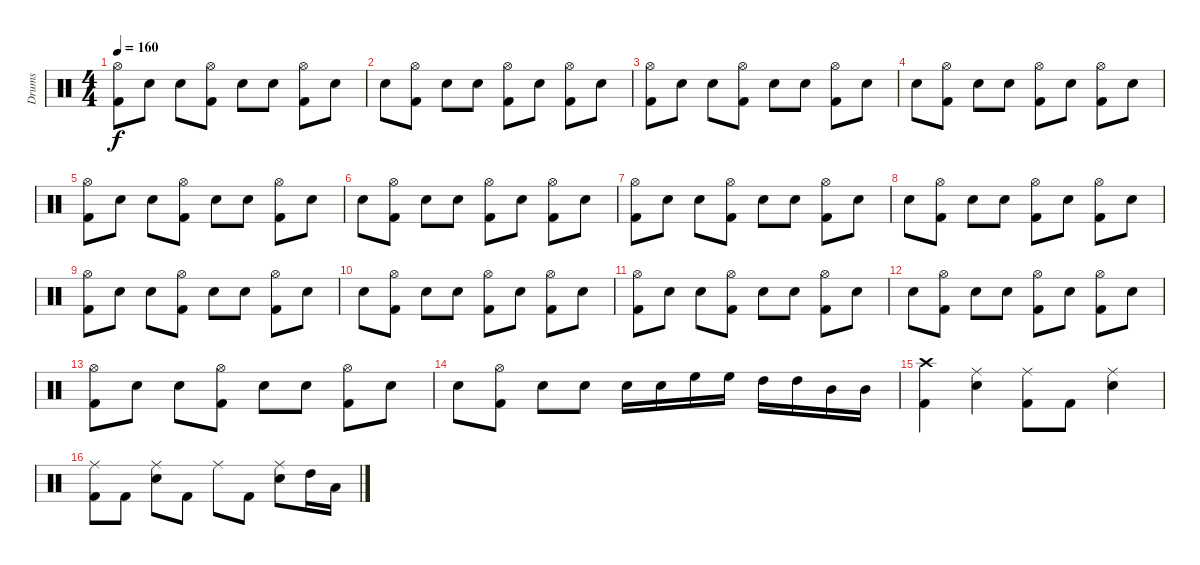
\track ("Drums" "Drums") {instrument percussion}
\staff {score}
\articulation defaults
\ts (4 4)
\tempo 160
\clef neutral
\ks c
("Hi-Hat (open)" "Kick (hit) 2").8{dy f} "Snare (hit) 2".8 "Snare (hit) 2".8 ("Hi-Hat (open)" "Kick (hit) 2").8 "Snare (hit) 2".8 "Snare (hit) 2".8 ("Hi-Hat (open)" "Kick (hit) 2").8 "Snare (hit) 2".8 |
"Snare (hit) 2".8 ("Hi-Hat (open)" "Kick (hit) 2").8 "Snare (hit) 2".8 "Snare (hit) 2".8 ("Hi-Hat (open)" "Kick (hit) 2").8 "Snare (hit) 2".8 ("Hi-Hat (open)" "Kick (hit) 2").8 "Snare (hit) 2".8 |
("Hi-Hat (open)" "Kick (hit) 2").8 "Snare (hit) 2".8 "Snare (hit) 2".8 ("Hi-Hat (open)" "Kick (hit) 2").8 "Snare (hit) 2".8 "Snare (hit) 2".8 ("Hi-Hat (open)" "Kick (hit) 2").8 "Snare (hit) 2".8 |
"Snare (hit) 2".8 ("Hi-Hat (open)" "Kick (hit) 2").8 "Snare (hit) 2".8 "Snare (hit) 2".8 ("Hi-Hat (open)" "Kick (hit) 2").8 "Snare (hit) 2".8 ("Hi-Hat (open)" "Kick (hit) 2").8 "Snare (hit) 2".8 |
("Hi-Hat (open)" "Kick (hit) 2").8 "Snare (hit) 2".8 "Snare (hit) 2".8 ("Hi-Hat (open)" "Kick (hit) 2").8 "Snare (hit) 2".8 "Snare (hit) 2".8 ("Hi-Hat (open)" "Kick (hit) 2").8 "Snare (hit) 2".8 |
"Snare (hit) 2".8 ("Hi-Hat (open)" "Kick (hit) 2").8 "Snare (hit) 2".8 "Snare (hit) 2".8 ("Hi-Hat (open)" "Kick (hit) 2").8 "Snare (hit) 2".8 ("Hi-Hat (open)" "Kick (hit) 2").8 "Snare (hit) 2".8 |
("Hi-Hat (open)" "Kick (hit) 2").8 "Snare (hit) 2".8 "Snare (hit) 2".8 ("Hi-Hat (open)" "Kick (hit) 2").8 "Snare (hit) 2".8 "Snare (hit) 2".8 ("Hi-Hat (open)" "Kick (hit) 2").8 "Snare (hit) 2".8 |
"Snare (hit) 2".8 ("Hi-Hat (open)" "Kick (hit) 2").8 "Snare (hit) 2".8 "Snare (hit) 2".8 ("Hi-Hat (open)" "Kick (hit) 2").8 "Snare (hit) 2".8 ("Hi-Hat (open)" "Kick (hit) 2").8 "Snare (hit) 2".8 |
("Hi-Hat (open)" "Kick (hit) 2").8 "Snare (hit) 2".8 "Snare (hit) 2".8 ("Hi-Hat (open)" "Kick (hit) 2").8 "Snare (hit) 2".8 "Snare (hit) 2".8 ("Hi-Hat (open)" "Kick (hit) 2").8 "Snare (hit) 2".8 |
"Snare (hit) 2".8 ("Hi-Hat (open)" "Kick (hit) 2").8 "Snare (hit) 2".8 "Snare (hit) 2".8 ("Hi-Hat (open)" "Kick (hit) 2").8 "Snare (hit) 2".8 ("Hi-Hat (open)" "Kick (hit) 2").8 "Snare (hit) 2".8 |
("Hi-Hat (open)" "Kick (hit) 2").8 "Snare (hit) 2".8 "Snare (hit) 2".8 ("Hi-Hat (open)" "Kick (hit) 2").8 "Snare (hit) 2".8 "Snare (hit) 2".8 ("Hi-Hat (open)" "Kick (hit) 2").8 "Snare (hit) 2".8 |
"Snare (hit) 2".8 ("Hi-Hat (open)" "Kick (hit) 2").8 "Snare (hit) 2".8 "Snare (hit) 2".8 ("Hi-Hat (open)" "Kick (hit) 2").8 "Snare (hit) 2".8 ("Hi-Hat (open)" "Kick (hit) 2").8 "Snare (hit) 2".8 |
("Hi-Hat (open)" "Kick (hit) 2").8 "Snare (hit) 2".8 "Snare (hit) 2".8 ("Hi-Hat (open)" "Kick (hit) 2").8 "Snare (hit) 2".8 "Snare (hit) 2".8 ("Hi-Hat (open)" "Kick (hit) 2").8 "Snare (hit) 2".8 |
"Snare (hit) 2".8 ("Hi-Hat (open)" "Kick (hit) 2").8 "Snare (hit) 2".8 "Snare (hit) 2".8 "Snare (hit) 2".16 "Snare (hit) 2".16 "High Floor Tom (hit)".16 "High Floor Tom (hit)".16 "High Tom (hit)".16 "High Tom (hit)".16 "Mid Tom (hit)".16 "Mid Tom (hit)".16 |
("Crash high (hit)" "Kick (hit) 2").4 ("Ride (middle)" "Snare (hit) 2").4 ("Ride (middle)" "Kick (hit) 2").8 "Kick (hit) 2".8 ("Ride (middle)" "Snare (hit) 2").4 |
("Ride (middle)" "Kick (hit) 2").8 "Kick (hit) 2".8 ("Ride (middle)" "Snare (hit) 2").8 "Kick (hit) 2".8 "Ride (middle)".8 "Kick (hit) 2".8 ("Ride (middle)" "Snare (hit) 2").8 "High Tom (hit)".16 "Low Tom (hit)".16
